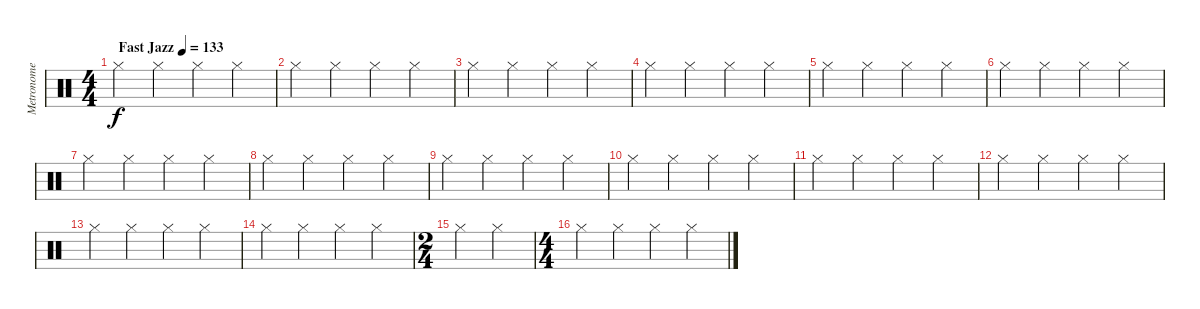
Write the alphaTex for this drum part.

\track ("Metronome (very useful)" "Metronome ") {instrument percussion}
\staff {score}
\articulation defaults
\ts (4 4)
\tempo (133 "Fast Jazz")
\clef neutral
\ks c "Hi-Hat (closed)".4{dy f} "Hi-Hat (closed)".4 "Hi-Hat (closed)".4 "Hi-Hat (closed)".4
|
"Hi-Hat (closed)".4 "Hi-Hat (closed)".4 "Hi-Hat (closed)".4 "Hi-Hat (closed)".4 |
"Hi-Hat (closed)".4 "Hi-Hat (closed)".4 "Hi-Hat (closed)".4 "Hi-Hat (closed)".4 |
"Hi-Hat (closed)".4 "Hi-Hat (closed)".4 "Hi-Hat (closed)".4 "Hi-Hat (closed)".4 |
"Hi-Hat (closed)".4 "Hi-Hat (closed)".4 "Hi-Hat (closed)".4 "Hi-Hat (closed)".4 |
"Hi-Hat (closed)".4 "Hi-Hat (closed)".4 "Hi-Hat (closed)".4 "Hi-Hat (closed)".4 |
"Hi-Hat (closed)".4 "Hi-Hat (closed)".4 "Hi-Hat (closed)".4 "Hi-Hat (closed)".4 |
"Hi-Hat (closed)".4 "Hi-Hat (closed)".4 "Hi-Hat (closed)".4 "Hi-Hat (closed)".4 |
"Hi-Hat (closed)".4 "Hi-Hat (closed)".4 "Hi-Hat (closed)".4 "Hi-Hat (closed)".4 |
"Hi-Hat (closed)".4 "Hi-Hat (closed)".4 "Hi-Hat (closed)".4 "Hi-Hat (closed)".4 |
"Hi-Hat (closed)".4 "Hi-Hat (closed)".4 "Hi-Hat (closed)".4 "Hi-Hat (closed)".4 |
"Hi-Hat (closed)".4 "Hi-Hat (closed)".4 "Hi-Hat (closed)".4 "Hi-Hat (closed)".4 |
"Hi-Hat (closed)".4 "Hi-Hat (closed)".4 "Hi-Hat (closed)".4 "Hi-Hat (closed)".4 |
"Hi-Hat (closed)".4 "Hi-Hat (closed)".4 "Hi-Hat (closed)".4 "Hi-Hat (closed)".4 |
\ts (2 4)
"Hi-Hat (closed)".4 "Hi-Hat (closed)".4 |
\ts (4 4)
"Hi-Hat (closed)".4 "Hi-Hat (closed)".4 "Hi-Hat (closed)".4 "Hi-Hat (closed)".4
